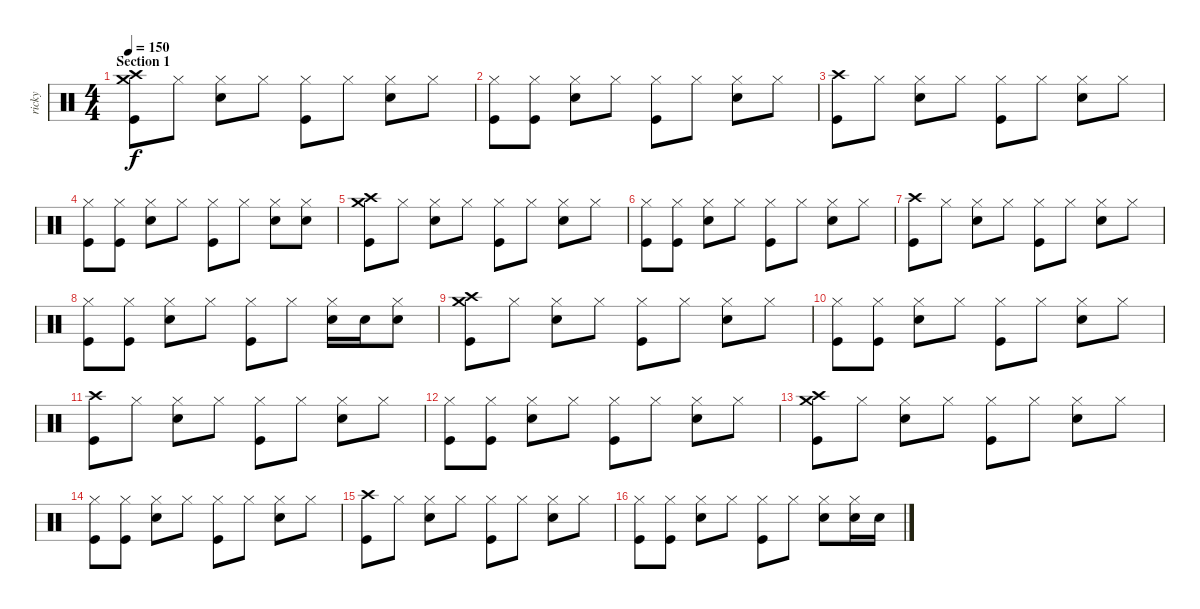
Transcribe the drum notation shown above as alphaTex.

\track ("ricky" "ricky") {instrument percussion}
\staff {score}
\articulation defaults
\ts (4 4)
\section ("" "Section 1")
\tempo 150
\clef neutral
\ks c
("Crash medium (hit)" "Crash high (hit)" "Kick (hit)").8{dy f} "Hi-Hat (closed)".8 ("Hi-Hat (closed)" "Electric Snare (hit)").8 "Hi-Hat (closed)".8 ("Hi-Hat (closed)" "Kick (hit)").8 "Hi-Hat (closed)".8 ("Hi-Hat (closed)" "Electric Snare (hit)").8 "Hi-Hat (closed)".8 |
("Hi-Hat (closed)" "Kick (hit)").8 ("Hi-Hat (closed)" "Kick (hit)").8 ("Hi-Hat (closed)" "Electric Snare (hit)").8 "Hi-Hat (closed)".8 ("Hi-Hat (closed)" "Kick (hit)").8 "Hi-Hat (closed)".8 ("Hi-Hat (closed)" "Electric Snare (hit)").8 "Hi-Hat (closed)".8 |
("Crash high (hit)" "Kick (hit)").8 "Hi-Hat (closed)".8 ("Hi-Hat (closed)" "Electric Snare (hit)").8 "Hi-Hat (closed)".8 ("Hi-Hat (closed)" "Kick (hit)").8 "Hi-Hat (closed)".8 ("Hi-Hat (closed)" "Electric Snare (hit)").8 "Hi-Hat (closed)".8 |
("Hi-Hat (closed)" "Kick (hit)").8 ("Hi-Hat (closed)" "Kick (hit)").8 ("Hi-Hat (closed)" "Electric Snare (hit)").8 "Hi-Hat (closed)".8 ("Hi-Hat (closed)" "Kick (hit)").8 "Hi-Hat (closed)".8 ("Hi-Hat (closed)" "Electric Snare (hit)").8 ("Hi-Hat (closed)" "Electric Snare (hit)").8 |
("Crash medium (hit)" "Crash high (hit)" "Kick (hit)").8 "Hi-Hat (closed)".8 ("Hi-Hat (closed)" "Electric Snare (hit)").8 "Hi-Hat (closed)".8 ("Hi-Hat (closed)" "Kick (hit)").8 "Hi-Hat (closed)".8 ("Hi-Hat (closed)" "Electric Snare (hit)").8 "Hi-Hat (closed)".8 |
("Hi-Hat (closed)" "Kick (hit)").8 ("Hi-Hat (closed)" "Kick (hit)").8 ("Hi-Hat (closed)" "Electric Snare (hit)").8 "Hi-Hat (closed)".8 ("Hi-Hat (closed)" "Kick (hit)").8 "Hi-Hat (closed)".8 ("Hi-Hat (closed)" "Electric Snare (hit)").8 "Hi-Hat (closed)".8 |
("Crash high (hit)" "Kick (hit)").8 "Hi-Hat (closed)".8 ("Hi-Hat (closed)" "Electric Snare (hit)").8 "Hi-Hat (closed)".8 ("Hi-Hat (closed)" "Kick (hit)").8 "Hi-Hat (closed)".8 ("Hi-Hat (closed)" "Electric Snare (hit)").8 "Hi-Hat (closed)".8 |
("Hi-Hat (closed)" "Kick (hit)").8 ("Hi-Hat (closed)" "Kick (hit)").8 ("Hi-Hat (closed)" "Electric Snare (hit)").8 "Hi-Hat (closed)".8 ("Hi-Hat (closed)" "Kick (hit)").8 "Hi-Hat (closed)".8 ("Hi-Hat (closed)" "Electric Snare (hit)").16 "Electric Snare (hit)".16 ("Hi-Hat (closed)" "Electric Snare (hit)").8 |
("Crash medium (hit)" "Crash high (hit)" "Kick (hit)").8 "Hi-Hat (closed)".8 ("Hi-Hat (closed)" "Electric Snare (hit)").8 "Hi-Hat (closed)".8 ("Hi-Hat (closed)" "Kick (hit)").8 "Hi-Hat (closed)".8 ("Hi-Hat (closed)" "Electric Snare (hit)").8 "Hi-Hat (closed)".8 |
("Hi-Hat (closed)" "Kick (hit)").8 ("Hi-Hat (closed)" "Kick (hit)").8 ("Hi-Hat (closed)" "Electric Snare (hit)").8 "Hi-Hat (closed)".8 ("Hi-Hat (closed)" "Kick (hit)").8 "Hi-Hat (closed)".8 ("Hi-Hat (closed)" "Electric Snare (hit)").8 "Hi-Hat (closed)".8 |
("Crash high (hit)" "Kick (hit)").8 "Hi-Hat (closed)".8 ("Hi-Hat (closed)" "Electric Snare (hit)").8 "Hi-Hat (closed)".8 ("Hi-Hat (closed)" "Kick (hit)").8 "Hi-Hat (closed)".8 ("Hi-Hat (closed)" "Electric Snare (hit)").8 "Hi-Hat (closed)".8 |
("Hi-Hat (closed)" "Kick (hit)").8 ("Hi-Hat (closed)" "Kick (hit)").8 ("Hi-Hat (closed)" "Electric Snare (hit)").8 "Hi-Hat (closed)".8 ("Hi-Hat (closed)" "Kick (hit)").8 "Hi-Hat (closed)".8 ("Hi-Hat (closed)" "Electric Snare (hit)").8 "Hi-Hat (closed)".8 |
("Crash medium (hit)" "Crash high (hit)" "Kick (hit)").8 "Hi-Hat (closed)".8 ("Hi-Hat (closed)" "Electric Snare (hit)").8 "Hi-Hat (closed)".8 ("Hi-Hat (closed)" "Kick (hit)").8 "Hi-Hat (closed)".8 ("Hi-Hat (closed)" "Electric Snare (hit)").8 "Hi-Hat (closed)".8 |
("Hi-Hat (closed)" "Kick (hit)").8 ("Hi-Hat (closed)" "Kick (hit)").8 ("Hi-Hat (closed)" "Electric Snare (hit)").8 "Hi-Hat (closed)".8 ("Hi-Hat (closed)" "Kick (hit)").8 "Hi-Hat (closed)".8 ("Hi-Hat (closed)" "Electric Snare (hit)").8 "Hi-Hat (closed)".8 |
("Crash high (hit)" "Kick (hit)").8 "Hi-Hat (closed)".8 ("Hi-Hat (closed)" "Electric Snare (hit)").8 "Hi-Hat (closed)".8 ("Hi-Hat (closed)" "Kick (hit)").8 "Hi-Hat (closed)".8 ("Hi-Hat (closed)" "Electric Snare (hit)").8 "Hi-Hat (closed)".8 |
("Hi-Hat (closed)" "Kick (hit)").8 ("Hi-Hat (closed)" "Kick (hit)").8 ("Hi-Hat (closed)" "Electric Snare (hit)").8 "Hi-Hat (closed)".8 ("Hi-Hat (closed)" "Kick (hit)").8 "Hi-Hat (closed)".8 ("Hi-Hat (closed)" "Electric Snare (hit)").8 ("Hi-Hat (closed)" "Electric Snare (hit)").16 "Electric Snare (hit)".16
